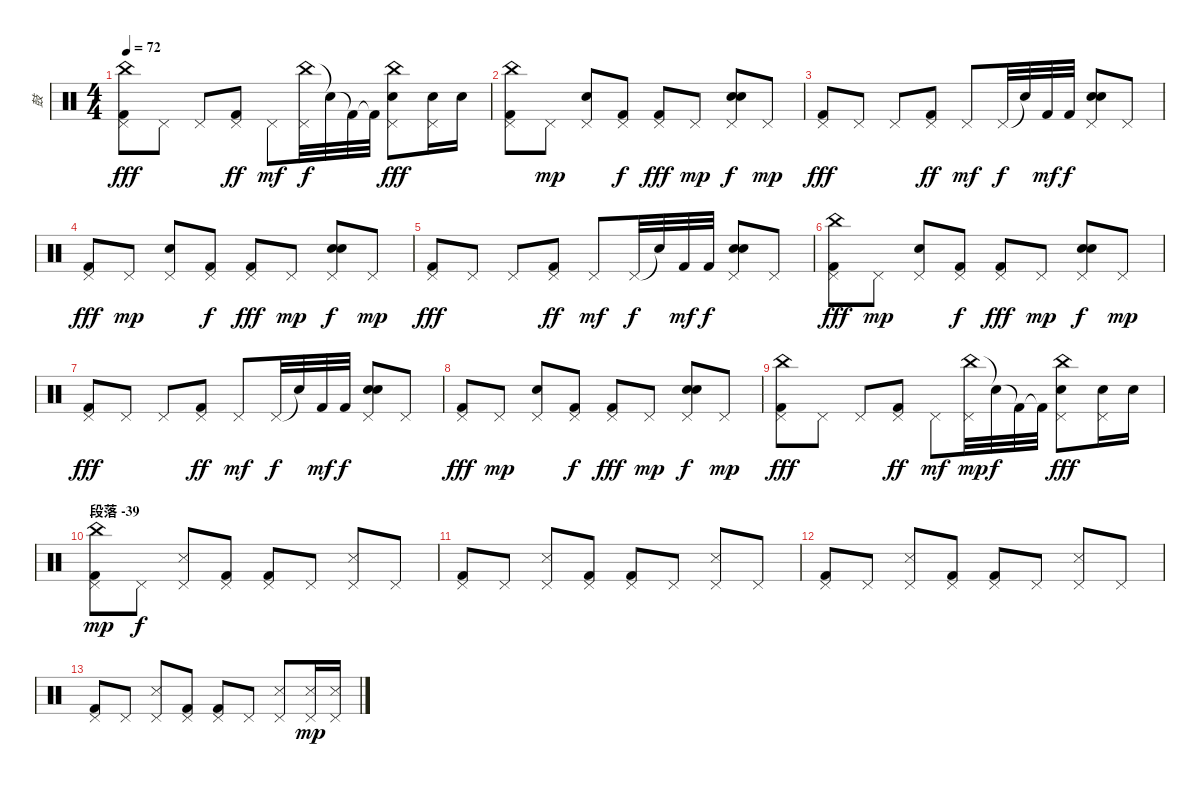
\track ("鼓" "鼓") {instrument percussion}
\staff {score}
\articulation defaults
\ts (4 4)
\tempo 72
\clef neutral
\ks c
("China (hit)" "Kick (hit) 2" "Pedal Hi-Hat (hit)").8{dy fff} "Pedal Hi-Hat (hit)".8 "Pedal Hi-Hat (hit)".8 ("Kick (hit) 2" "Pedal Hi-Hat (hit)").8{dy ff} "Pedal Hi-Hat (hit)".8{dy mf} ("China (hit)" "Pedal Hi-Hat (hit)").32{dy f} "Snare (hit)"{t}.32 "Kick (hit) 2"{t}.32 "Kick (hit) 2"{t}.32 ("China (hit)" "Electric Snare (hit)" "Pedal Hi-Hat (hit)").8{dy fff} ("Electric Snare (hit)" "Pedal Hi-Hat (hit)").16 "Electric Snare (hit)".16 |
("China (hit)" "Kick (hit) 2" "Pedal Hi-Hat (hit)").8 "Pedal Hi-Hat (hit)".8{dy mp} ("Electric Snare (hit)" "Pedal Hi-Hat (hit)").8 ("Kick (hit) 2" "Pedal Hi-Hat (hit)").8{dy f} ("Kick (hit) 2" "Pedal Hi-Hat (hit)").8{dy fff} "Pedal Hi-Hat (hit)".8{dy mp} ("Hand Clap (hit)" "Electric Snare (hit)" "Pedal Hi-Hat (hit)").8{dy f} "Pedal Hi-Hat (hit)".8{dy mp} |
("Kick (hit) 2" "Pedal Hi-Hat (hit)").8{dy fff} "Pedal Hi-Hat (hit)".8 "Pedal Hi-Hat (hit)".8 ("Kick (hit) 2" "Pedal Hi-Hat (hit)").8{dy ff} "Pedal Hi-Hat (hit)".8{dy mf} "Pedal Hi-Hat (hit)".32{dy f} "Snare (hit)"{t}.32 "Kick (hit) 2".32{dy mf} "Kick (hit) 2".32{dy f} ("Hand Clap (hit)" "Electric Snare (hit)" "Pedal Hi-Hat (hit)").8 "Pedal Hi-Hat (hit)".8 |
("Kick (hit) 2" "Pedal Hi-Hat (hit)").8{dy fff} "Pedal Hi-Hat (hit)".8{dy mp} ("Electric Snare (hit)" "Pedal Hi-Hat (hit)").8 ("Kick (hit) 2" "Pedal Hi-Hat (hit)").8{dy f} ("Kick (hit) 2" "Pedal Hi-Hat (hit)").8{dy fff} "Pedal Hi-Hat (hit)".8{dy mp} ("Hand Clap (hit)" "Electric Snare (hit)" "Pedal Hi-Hat (hit)").8{dy f} "Pedal Hi-Hat (hit)".8{dy mp} |
("Kick (hit) 2" "Pedal Hi-Hat (hit)").8{dy fff} "Pedal Hi-Hat (hit)".8 "Pedal Hi-Hat (hit)".8 ("Kick (hit) 2" "Pedal Hi-Hat (hit)").8{dy ff} "Pedal Hi-Hat (hit)".8{dy mf} "Pedal Hi-Hat (hit)".32{dy f} "Snare (hit)"{t}.32 "Kick (hit) 2".32{dy mf} "Kick (hit) 2".32{dy f} ("Hand Clap (hit)" "Electric Snare (hit)" "Pedal Hi-Hat (hit)").8 "Pedal Hi-Hat (hit)".8 |
("China (hit)" "Kick (hit) 2" "Pedal Hi-Hat (hit)").8{dy fff} "Pedal Hi-Hat (hit)".8{dy mp} ("Electric Snare (hit)" "Pedal Hi-Hat (hit)").8 ("Kick (hit) 2" "Pedal Hi-Hat (hit)").8{dy f} ("Kick (hit) 2" "Pedal Hi-Hat (hit)").8{dy fff} "Pedal Hi-Hat (hit)".8{dy mp} ("Hand Clap (hit)" "Electric Snare (hit)" "Pedal Hi-Hat (hit)").8{dy f} "Pedal Hi-Hat (hit)".8{dy mp} |
("Kick (hit) 2" "Pedal Hi-Hat (hit)").8{dy fff} "Pedal Hi-Hat (hit)".8 "Pedal Hi-Hat (hit)".8 ("Kick (hit) 2" "Pedal Hi-Hat (hit)").8{dy ff} "Pedal Hi-Hat (hit)".8{dy mf} "Pedal Hi-Hat (hit)".32{dy f} "Snare (hit)"{t}.32 "Kick (hit) 2".32{dy mf} "Kick (hit) 2".32{dy f} ("Hand Clap (hit)" "Electric Snare (hit)" "Pedal Hi-Hat (hit)").8 "Pedal Hi-Hat (hit)".8 |
("Kick (hit) 2" "Pedal Hi-Hat (hit)").8{dy fff} "Pedal Hi-Hat (hit)".8{dy mp} ("Electric Snare (hit)" "Pedal Hi-Hat (hit)").8 ("Kick (hit) 2" "Pedal Hi-Hat (hit)").8{dy f} ("Kick (hit) 2" "Pedal Hi-Hat (hit)").8{dy fff} "Pedal Hi-Hat (hit)".8{dy mp} ("Hand Clap (hit)" "Electric Snare (hit)" "Pedal Hi-Hat (hit)").8{dy f} "Pedal Hi-Hat (hit)".8{dy mp} |
("China (hit)" "Kick (hit) 2" "Pedal Hi-Hat (hit)").8{dy fff} "Pedal Hi-Hat (hit)".8 "Pedal Hi-Hat (hit)".8 ("Kick (hit) 2" "Pedal Hi-Hat (hit)").8{dy ff} "Pedal Hi-Hat (hit)".8{dy mf} ("China (hit)" "Pedal Hi-Hat (hit)").32{dy mp} "Snare (hit)"{t}.32{dy f} "Kick (hit) 2"{t}.32 "Kick (hit) 2"{t}.32 ("China (hit)" "Electric Snare (hit)" "Pedal Hi-Hat (hit)").8{dy fff} ("Electric Snare (hit)" "Pedal Hi-Hat (hit)").16 "Electric Snare (hit)".16 |
\section ("" "段落 -39")
("China (hit)" "Kick (hit) 2" "Pedal Hi-Hat (hit)").8{dy mp} "Pedal Hi-Hat (hit)".8{dy f} ("Snare (side stick) 3" "Pedal Hi-Hat (hit)").8 ("Kick (hit) 2" "Pedal Hi-Hat (hit)").8 ("Kick (hit) 2" "Pedal Hi-Hat (hit)").8 "Pedal Hi-Hat (hit)".8 ("Snare (side stick) 3" "Pedal Hi-Hat (hit)").8 "Pedal Hi-Hat (hit)".8 |
("Kick (hit) 2" "Pedal Hi-Hat (hit)").8 "Pedal Hi-Hat (hit)".8 ("Snare (side stick) 3" "Pedal Hi-Hat (hit)").8 ("Kick (hit) 2" "Pedal Hi-Hat (hit)").8 ("Kick (hit) 2" "Pedal Hi-Hat (hit)").8 "Pedal Hi-Hat (hit)".8 ("Snare (side stick) 3" "Pedal Hi-Hat (hit)").8 "Pedal Hi-Hat (hit)".8 |
("Kick (hit) 2" "Pedal Hi-Hat (hit)").8 "Pedal Hi-Hat (hit)".8 ("Snare (side stick) 3" "Pedal Hi-Hat (hit)").8 ("Kick (hit) 2" "Pedal Hi-Hat (hit)").8 ("Kick (hit) 2" "Pedal Hi-Hat (hit)").8 "Pedal Hi-Hat (hit)".8 ("Snare (side stick) 3" "Pedal Hi-Hat (hit)").8 "Pedal Hi-Hat (hit)".8 |
("Kick (hit) 2" "Pedal Hi-Hat (hit)").8 "Pedal Hi-Hat (hit)".8 ("Snare (side stick) 3" "Pedal Hi-Hat (hit)").8 ("Kick (hit) 2" "Pedal Hi-Hat (hit)").8 ("Kick (hit) 2" "Pedal Hi-Hat (hit)").8 "Pedal Hi-Hat (hit)".8 ("Snare (side stick) 3" "Pedal Hi-Hat (hit)").8 ("Snare (side stick) 3" "Pedal Hi-Hat (hit)").16{dy mp} ("Snare (side stick) 3" "Pedal Hi-Hat (hit)").16
